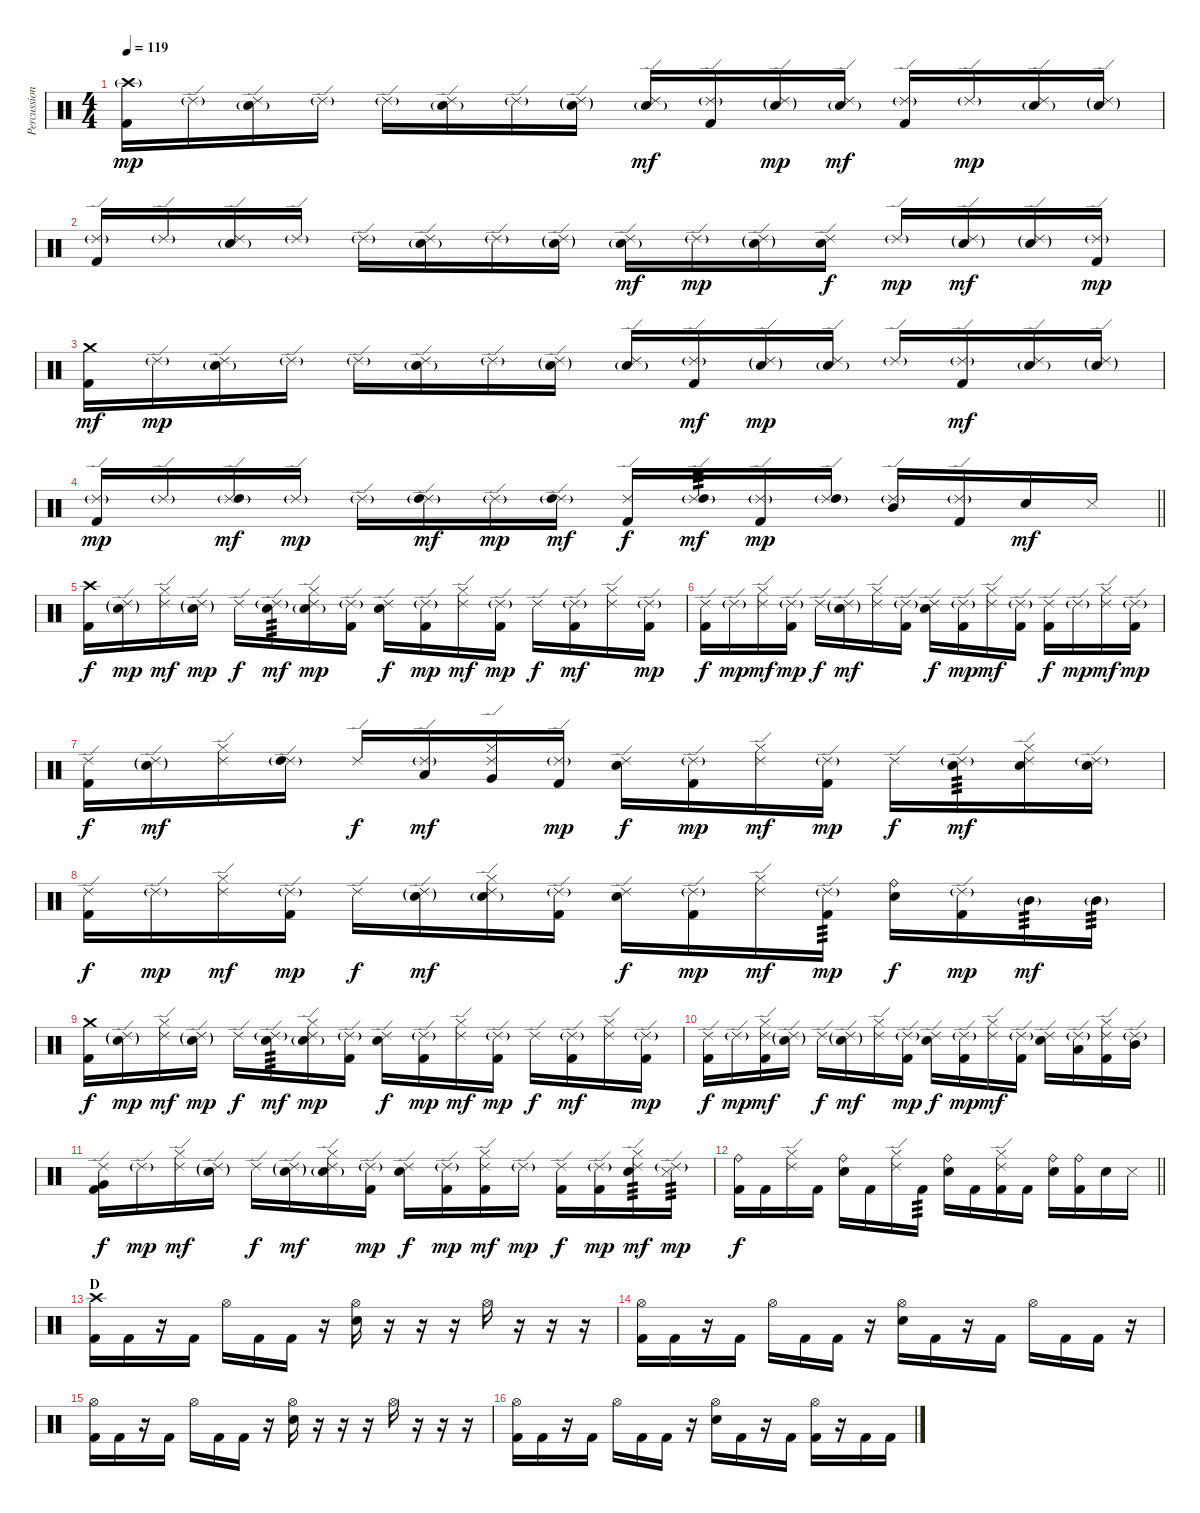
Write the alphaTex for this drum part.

\track ("Percussion" "Percussion") {instrument percussion}
\staff {score}
\articulation defaults
\ts (4 4)
\tempo 119
\clef neutral
\ks c
("Crash high (hit)"{g} "Kick (hit) 2").16{dy mp} "Ride (edge) 2"{g}.16 ("Ride (edge) 2" "Snare (hit) 2"{g}).16 "Ride (edge) 2"{g}.16 "Ride (edge) 2"{g}.16 ("Ride (edge) 2" "Snare (hit) 2"{g}).16 "Ride (edge) 2"{g}.16 ("Ride (edge) 2"{g} "Snare (hit) 2"{g}).16 ("Ride (edge) 2" "Snare (hit) 2"{g}).16{dy mf} ("Ride (edge) 2"{g} "Kick (hit) 2").16 ("Ride (edge) 2"{g} "Snare (hit) 2"{g}).16{dy mp} ("Ride (edge) 2" "Snare (hit) 2"{g}).16{dy mf} ("Ride (edge) 2"{g} "Kick (hit) 2").16 "Ride (edge) 2"{g}.16{dy mp} ("Ride (edge) 2" "Snare (hit) 2"{g}).16 ("Ride (edge) 2"{g} "Snare (hit) 2"{g}).16 |
("Ride (edge) 2"{g} "Kick (hit) 2").16 "Ride (edge) 2"{g}.16 ("Ride (edge) 2" "Snare (hit) 2"{g}).16 "Ride (edge) 2"{g}.16 "Ride (edge) 2"{g}.16 ("Ride (edge) 2" "Snare (hit) 2"{g}).16 "Ride (edge) 2"{g}.16 ("Ride (edge) 2"{g} "Snare (hit) 2"{g}).16 ("Ride (edge) 2" "Snare (hit) 2"{g}).16{dy mf} "Ride (edge) 2"{g}.16{dy mp} ("Ride (edge) 2"{g} "Electric Snare (hit)"{g}).16 ("Ride (edge) 2" "Electric Snare (hit)").16{dy f} "Ride (edge) 2"{g}.16{dy mp} ("Ride (edge) 2"{g} "Snare (hit) 2"{g}).16{dy mf} ("Ride (edge) 2"{g} "Snare (hit) 2"{g}).16 ("Ride (edge) 2"{g} "Kick (hit) 2").16{dy mp} |
("Crash medium (hit)" "Kick (hit) 2").16{dy mf} "Ride (edge) 2"{g}.16{dy mp} ("Ride (edge) 2" "Snare (hit) 2"{g}).16 "Ride (edge) 2"{g}.16 "Ride (edge) 2"{g}.16 ("Ride (edge) 2" "Snare (hit) 2"{g}).16 "Ride (edge) 2"{g}.16 ("Ride (edge) 2"{g} "Snare (hit) 2"{g}).16 ("Ride (edge) 2" "Snare (hit) 2"{g}).16 ("Ride (edge) 2"{g} "Kick (hit) 2").16{dy mf} ("Ride (edge) 2"{g} "Snare (hit) 2"{g}).16{dy mp} ("Ride (edge) 2" "Snare (hit) 2"{g}).16 "Ride (edge) 2"{g}.16 ("Ride (edge) 2"{g} "Kick (hit) 2").16{dy mf} ("Ride (edge) 2" "Snare (hit) 2"{g}).16 ("Ride (edge) 2"{g} "Snare (hit) 2"{g}).16 |
\barLineRight lightlight
("Ride (edge) 2"{g} "Kick (hit) 2").16{dy mp} "Ride (edge) 2"{g}.16 ("Ride (edge) 2" "High Tom (hit)"{g}).16{dy mf} "Ride (edge) 2"{g}.16{dy mp} "Ride (edge) 2"{g}.16 ("Ride (edge) 2" "High Tom (hit)"{g}).16{dy mf} "Ride (edge) 2"{g}.16{dy mp} ("Ride (edge) 2"{g} "High Tom (hit)"{g}).16{dy mf} ("Ride (edge) 2" "Kick (hit) 2").16{dy f} ("Ride (edge) 2"{g} "High Tom (hit)").16{tp 3 dy mf} ("Ride (edge) 2"{g} "Kick (hit) 2").16{dy mp} ("Ride (edge) 2"{g} "High Tom (hit)").16 ("Ride (edge) 2"{g} "Mid Tom (hit)").16 ("Ride (edge) 2"{g} "Kick (hit) 2").16 "Snare (hit) 2".16{dy mf} "Metronome (hit)".16 |
("Crash high (hit)" "Kick (hit) 2").16{dy f} ("Ride (edge) 2"{g} "Snare (hit) 2"{g}).16{dy mp} ("Ride (edge) 2" "Hi-Hat (closed)").16{dy mf} ("Ride (edge) 2"{g} "Snare (hit) 2"{g}).16{dy mp} "Ride (edge) 2".16{dy f} ("Ride (edge) 2"{g} "Snare (hit) 2").16{tp 3 dy mf} ("Ride (edge) 2" "Hi-Hat (closed)" "Snare (hit) 2"{g}).16{dy mp} ("Ride (edge) 2"{g} "Kick (hit) 2").16 ("Ride (edge) 2" "Snare (hit) 2").16{dy f} ("Ride (edge) 2"{g} "Kick (hit) 2").16{dy mp} ("Ride (edge) 2" "Hi-Hat (closed)").16{dy mf} ("Ride (edge) 2"{g} "Kick (hit) 2").16{dy mp} "Ride (edge) 2".16{dy f} ("Ride (edge) 2"{g} "Kick (hit) 2").16{dy mf} ("Ride (edge) 2" "Hi-Hat (closed)").16 ("Ride (edge) 2"{g} "Kick (hit) 2").16{dy mp} |
("Ride (edge) 2" "Kick (hit) 2").16{dy f} "Ride (edge) 2"{g}.16{dy mp} ("Ride (edge) 2" "Hi-Hat (closed)").16{dy mf} ("Ride (edge) 2"{g} "Kick (hit) 2").16{dy mp} "Ride (edge) 2".16{dy f} ("Ride (edge) 2"{g} "Snare (hit) 2"{g}).16{dy mf} ("Ride (edge) 2" "Hi-Hat (closed)").16 ("Ride (edge) 2"{g} "Kick (hit) 2").16 ("Ride (edge) 2" "Snare (hit) 2").16{dy f} ("Ride (edge) 2"{g} "Kick (hit) 2").16{dy mp} ("Ride (edge) 2" "Hi-Hat (closed)").16{dy mf} ("Ride (edge) 2"{g} "Kick (hit) 2").16 ("Ride (edge) 2" "Kick (hit) 2").16{dy f} "Ride (edge) 2"{g}.16{dy mp} ("Ride (edge) 2" "Hi-Hat (closed)").16{dy mf} ("Ride (edge) 2"{g} "Kick (hit) 2").16{dy mp} |
("Ride (edge) 2" "Kick (hit) 2").16{dy f} ("Ride (edge) 2"{g} "Snare (hit) 2"{g}).16{dy mf} ("Ride (edge) 2" "Hi-Hat (closed)").16 ("Ride (edge) 2"{g} "High Tom (hit)").16 "Ride (edge) 2".16{dy f} ("Ride (edge) 2"{g} "Low Tom (hit)").16{dy mf} ("Ride (edge) 2" "Hi-Hat (closed)" "Very Low Tom (hit)").16 ("Ride (edge) 2"{g} "Kick (hit) 2").16{dy mp} ("Ride (edge) 2" "Snare (hit) 2").16{dy f} ("Ride (edge) 2"{g} "Kick (hit) 2").16{dy mp} ("Ride (edge) 2" "Hi-Hat (closed)").16{dy mf} ("Ride (edge) 2"{g} "Kick (hit) 2").16{dy mp} "Ride (edge) 2".16{dy f} ("Ride (edge) 2"{g} "Snare (hit) 2").16{tp 3 dy mf} ("Ride (edge) 2" "Hi-Hat (closed)" "Snare (hit) 2").16 ("Ride (edge) 2"{g} "Snare (hit) 2").16 |
("Ride (edge) 2" "Kick (hit) 2").16{dy f} "Ride (edge) 2"{g}.16{dy mp} ("Ride (edge) 2" "Hi-Hat (closed)").16{dy mf} ("Ride (edge) 2"{g} "Kick (hit) 2").16{dy mp} "Ride (edge) 2".16{dy f} ("Ride (edge) 2"{g} "Snare (hit) 2"{g}).16{dy mf} ("Ride (edge) 2" "Hi-Hat (closed)" "Snare (hit) 2"{g}).16 ("Ride (edge) 2"{g} "Kick (hit) 2").16 ("Ride (edge) 2" "Snare (hit) 2").16{dy f} ("Ride (edge) 2"{g} "Kick (hit) 2").16{dy mp} ("Ride (edge) 2" "Hi-Hat (closed)").16{dy mf} ("Ride (edge) 2"{g} "Kick (hit) 2").16{tp 3 dy mp} ("Ride (bell)" "Snare (hit) 2").16{dy f} ("Ride (edge) 2"{g} "Kick (hit) 2").16{dy mp} "Mid Tom (hit)"{g}.16{tp 3 dy mf} "Mid Tom (hit)"{g}.16{tp 3} |
("Crash medium (hit)" "Kick (hit) 2").16{dy f} ("Ride (edge) 2"{g} "Snare (hit) 2"{g}).16{dy mp} ("Ride (edge) 2" "Hi-Hat (closed)").16{dy mf} ("Ride (edge) 2"{g} "Snare (hit) 2"{g}).16{dy mp} "Ride (edge) 2".16{dy f} ("Ride (edge) 2"{g} "Snare (hit) 2").16{tp 3 dy mf} ("Ride (edge) 2" "Hi-Hat (closed)" "Snare (hit) 2"{g}).16{dy mp} ("Ride (edge) 2"{g} "Kick (hit) 2").16 ("Ride (edge) 2" "Snare (hit) 2").16{dy f} ("Ride (edge) 2"{g} "Kick (hit) 2").16{dy mp} ("Ride (edge) 2" "Hi-Hat (closed)").16{dy mf} ("Ride (edge) 2"{g} "Kick (hit) 2").16{dy mp} "Ride (edge) 2".16{dy f} ("Ride (edge) 2"{g} "Kick (hit) 2").16{dy mf} ("Ride (edge) 2" "Hi-Hat (closed)").16 ("Ride (edge) 2"{g} "Kick (hit) 2").16{dy mp} |
("Ride (edge) 2" "Kick (hit) 2").16{dy f} "Ride (edge) 2"{g}.16{dy mp} ("Ride (edge) 2" "Hi-Hat (closed)" "Kick (hit) 2").16{dy mf} ("Ride (edge) 2"{g} "Snare (hit) 2"{g}).16 "Ride (edge) 2".16{dy f} ("Ride (edge) 2"{g} "Snare (hit) 2"{g}).16{dy mf} ("Ride (edge) 2" "Hi-Hat (closed)").16 ("Ride (edge) 2"{g} "Kick (hit) 2").16{dy mp} ("Ride (edge) 2" "Snare (hit) 2").16{dy f} ("Ride (edge) 2"{g} "Kick (hit) 2").16{dy mp} ("Ride (edge) 2" "Hi-Hat (closed)").16{dy mf} ("Ride (edge) 2"{g} "Kick (hit) 2").16 ("Ride (edge) 2" "Snare (hit) 2").16 ("Ride (edge) 2"{g} "Low Tom (hit)").16 ("Ride (edge) 2" "Hi-Hat (closed)" "Kick (hit) 2").16 ("Ride (edge) 2"{g} "Mid Tom (hit)").16 |
("Ride (edge) 2" "Very Low Tom (hit)" "Kick (hit) 2").16{dy f} "Ride (edge) 2"{g}.16{dy mp} ("Ride (edge) 2" "Hi-Hat (closed)").16{dy mf} ("Ride (edge) 2"{g} "Snare (hit) 2"{g}).16 "Ride (edge) 2".16{dy f} ("Ride (edge) 2"{g} "Snare (hit) 2"{g}).16{dy mf} ("Ride (edge) 2" "Hi-Hat (closed)" "Snare (hit) 2"{g}).16 ("Ride (edge) 2"{g} "Kick (hit) 2").16{dy mp} ("Ride (edge) 2" "Snare (hit) 2").16{dy f} ("Ride (edge) 2"{g} "Kick (hit) 2").16{dy mp} ("Ride (edge) 2" "Hi-Hat (closed)" "Kick (hit) 2").16{dy mf} "Ride (edge) 2"{g}.16{dy mp} ("Ride (edge) 2" "Kick (hit) 2").16{dy f} ("Ride (edge) 2"{g} "Kick (hit) 2").16{dy mp} ("Ride (edge) 2" "Hi-Hat (closed)" "Snare (hit) 2").16{tp 3 dy mf} ("Ride (edge) 2"{g} "Metronome (hit)").16{tp 3 dy mp} |
\barLineRight lightlight
("Ride (bell)" "Kick (hit) 2").16{dy f} "Kick (hit) 2".16 ("Ride (edge) 2" "Hi-Hat (closed)").16 "Kick (hit) 2".16 ("Ride (bell)" "Snare (hit) 2").16 "Kick (hit) 2".16 ("Ride (edge) 2" "Hi-Hat (closed)").16 "Kick (hit) 2".16{tp 3} ("Ride (bell)" "Snare (hit) 2").16 "Kick (hit) 2".16 ("Ride (edge) 2" "Hi-Hat (closed)" "Kick (hit) 2").16 "Kick (hit) 2".16 ("Ride (bell)" "Snare (hit) 2").16 ("Ride (bell)" "Kick (hit) 2").16 "Snare (hit) 2".16 "Metronome (hit)".16 |
\section ("" "D")
("Crash high (hit)" "Kick (hit) 2").16 "Kick (hit) 2".16 r.16 "Kick (hit) 2".16 "Hi-Hat (open)".16 "Kick (hit) 2".16 "Kick (hit) 2".16 r.16 ("Hi-Hat (open)" "Snare (hit) 2").16 r.16 r.16 r.16 "Hi-Hat (open)".16 r.16 r.16 r.16 |
("Hi-Hat (open)" "Kick (hit) 2").16 "Kick (hit) 2".16 r.16 "Kick (hit) 2".16 "Hi-Hat (open)".16 "Kick (hit) 2".16 "Kick (hit) 2".16 r.16 ("Hi-Hat (open)" "Snare (hit) 2").16 "Kick (hit) 2".16 r.16 "Kick (hit) 2".16 "Hi-Hat (open)".16 "Kick (hit) 2".16 "Kick (hit) 2".16 r.16 |
("Hi-Hat (open)" "Kick (hit) 2").16 "Kick (hit) 2".16 r.16 "Kick (hit) 2".16 "Hi-Hat (open)".16 "Kick (hit) 2".16 "Kick (hit) 2".16 r.16 ("Hi-Hat (open)" "Snare (hit) 2").16 r.16 r.16 r.16 "Hi-Hat (open)".16 r.16 r.16 r.16 |
("Hi-Hat (open)" "Kick (hit) 2").16 "Kick (hit) 2".16 r.16 "Kick (hit) 2".16 "Hi-Hat (open)".16 "Kick (hit) 2".16 "Kick (hit) 2".16 r.16 ("Hi-Hat (open)" "Snare (hit) 2").16 "Kick (hit) 2".16 r.16 "Kick (hit) 2".16 ("Hi-Hat (open)" "Kick (hit) 2").16 r.16 "Kick (hit) 2".16 "Kick (hit) 2".16
